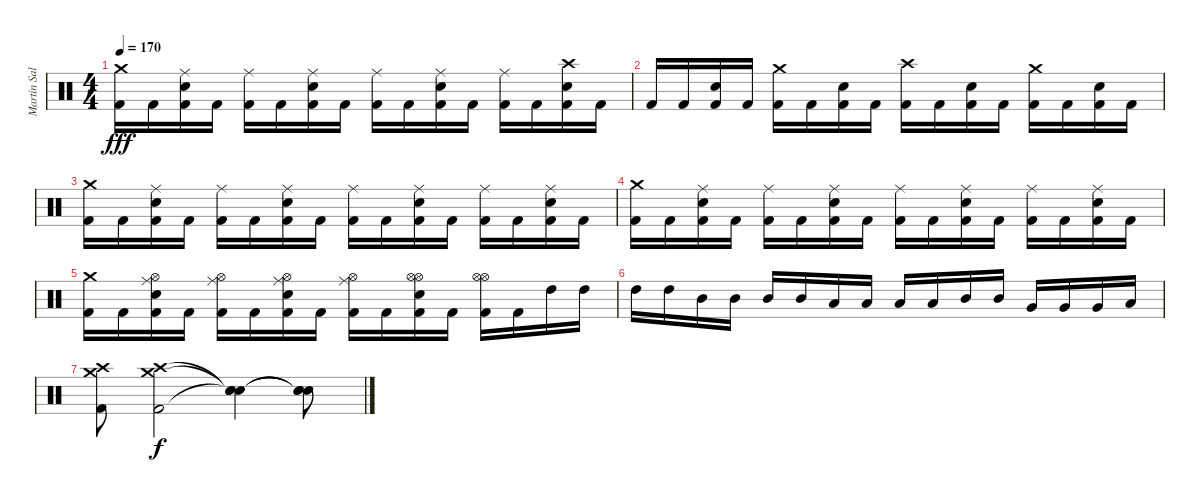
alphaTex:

\track ("Martín Salariato" "Martín Sal") {instrument percussion}
\staff {score}
\articulation defaults
\ts (4 4)
\tempo 170
\clef neutral
\ks c
("Crash medium (hit)" "Kick (hit) 2").16{dy fff} "Kick (hit) 2".16 ("Ride (middle)" "Snare (hit) 2" "Kick (hit) 2").16 "Kick (hit) 2".16 ("Ride (middle)" "Kick (hit) 2").16 "Kick (hit) 2".16 ("Ride (middle)" "Snare (hit) 2" "Kick (hit) 2").16 "Kick (hit) 2".16 ("Ride (middle)" "Kick (hit) 2").16 "Kick (hit) 2".16 ("Ride (middle)" "Snare (hit) 2" "Kick (hit) 2").16 "Kick (hit) 2".16 ("Ride (middle)" "Kick (hit) 2").16 "Kick (hit) 2".16 ("Crash high (hit)" "Snare (hit) 2" "Kick (hit) 2").16 "Kick (hit) 2".16 |
"Kick (hit) 2".16 "Kick (hit) 2".16 ("Snare (hit) 2" "Kick (hit) 2").16 "Kick (hit) 2".16 ("Crash medium (hit)" "Kick (hit) 2").16 "Kick (hit) 2".16 ("Snare (hit) 2" "Kick (hit) 2").16 "Kick (hit) 2".16 ("Crash high (hit)" "Kick (hit) 2").16 "Kick (hit) 2".16 ("Snare (hit) 2" "Kick (hit) 2").16 "Kick (hit) 2".16 ("Crash medium (hit)" "Kick (hit) 2").16 "Kick (hit) 2".16 ("Snare (hit) 2" "Kick (hit) 2").16 "Kick (hit) 2".16 |
("Crash medium (hit)" "Kick (hit) 2").16 "Kick (hit) 2".16 ("Ride (middle)" "Snare (hit) 2" "Kick (hit) 2").16 "Kick (hit) 2".16 ("Ride (middle)" "Kick (hit) 2").16 "Kick (hit) 2".16 ("Ride (middle)" "Snare (hit) 2" "Kick (hit) 2").16 "Kick (hit) 2".16 ("Ride (middle)" "Kick (hit) 2").16 "Kick (hit) 2".16 ("Ride (middle)" "Snare (hit) 2" "Kick (hit) 2").16 "Kick (hit) 2".16 ("Ride (middle)" "Kick (hit) 2").16 "Kick (hit) 2".16 ("Ride (middle)" "Snare (hit) 2" "Kick (hit) 2").16 "Kick (hit) 2".16 |
("Crash medium (hit)" "Kick (hit) 2").16 "Kick (hit) 2".16 ("Ride (middle)" "Snare (hit) 2" "Kick (hit) 2").16 "Kick (hit) 2".16 ("Ride (middle)" "Kick (hit) 2").16 "Kick (hit) 2".16 ("Ride (middle)" "Snare (hit) 2" "Kick (hit) 2").16 "Kick (hit) 2".16 ("Ride (middle)" "Kick (hit) 2").16 "Kick (hit) 2".16 ("Ride (middle)" "Snare (hit) 2" "Kick (hit) 2").16 "Kick (hit) 2".16 ("Ride (middle)" "Kick (hit) 2").16 "Kick (hit) 2".16 ("Ride (middle)" "Snare (hit) 2" "Kick (hit) 2").16 "Kick (hit) 2".16 |
("Crash medium (hit)" "Kick (hit) 2").16 "Kick (hit) 2".16 ("Hi-Hat (open)" "Ride (middle)" "Snare (hit) 2" "Kick (hit) 2").16 "Kick (hit) 2".16 ("Hi-Hat (open)" "Ride (middle)" "Kick (hit) 2").16 "Kick (hit) 2".16 ("Hi-Hat (open)" "Ride (middle)" "Snare (hit) 2" "Kick (hit) 2").16 "Kick (hit) 2".16 ("Hi-Hat (open)" "Ride (middle)" "Kick (hit) 2").16 "Kick (hit) 2".16 ("Hi-Hat (open)" "Hi-Hat (open)" "Snare (hit) 2" "Kick (hit) 2").16 "Kick (hit) 2".16 ("Hi-Hat (open)" "Hi-Hat (open)" "Kick (hit) 2").16 "Kick (hit) 2".16 "High Tom (hit)".16 "High Tom (hit)".16 |
"High Tom (hit)".16 "High Tom (hit)".16 "Mid Tom (hit)".16 "Mid Tom (hit)".16 "Mid Tom (hit)".16 "Mid Tom (hit)".16 "Low Tom (hit)".16 "Low Tom (hit)".16 "Low Tom (hit)".16 "Low Tom (hit)".16 "Mid Tom (hit)".16 "Mid Tom (hit)".16 "Very Low Tom (hit)".16 "Very Low Tom (hit)".16 "Very Low Tom (hit)".16 "Low Tom (hit)".16 |
("Crash high (hit)" "Crash medium (hit)" "Kick (hit) 2").8 ("Crash high (hit)" "Crash medium (hit)" "Kick (hit) 2").2{dy f} ("Snare (hit)"{t} "Snare (hit)"{t} "Snare (hit)"{t}).4 ("Snare (hit)"{t} "Snare (hit)"{t} "Snare (hit)"{t}).8
